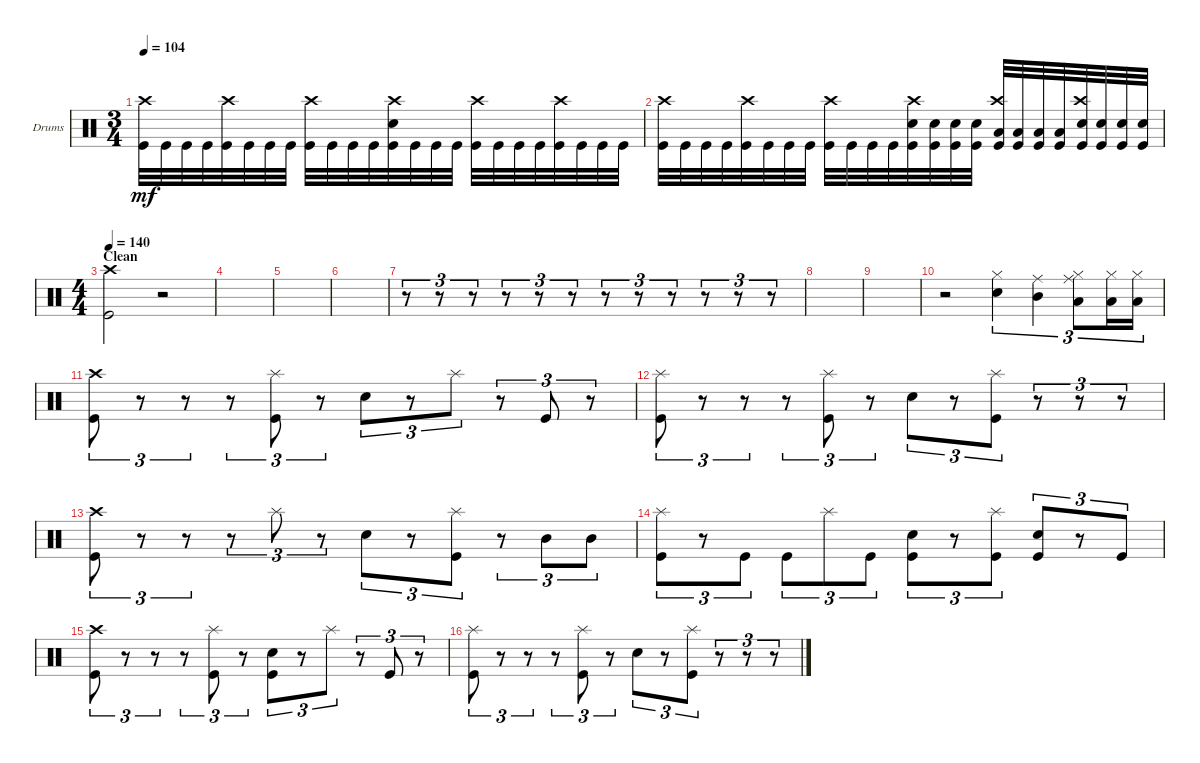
\bracketExtendMode groupsimilarinstruments
\firstSystemTrackNameOrientation horizontal
\otherSystemsTrackNameOrientation horizontal
\track ("Drumkit" "Drums") {instrument percussion}
\staff {score}
\articulation defaults
\ts (3 4)
\tempo 104
\clef neutral
\ks c
("Kick (hit)" "Crash high (hit)").32{dy mf} "Kick (hit)".32 "Kick (hit)".32 "Kick (hit)".32 ("Kick (hit)" "Crash high (hit)").32 "Kick (hit)".32 "Kick (hit)".32 "Kick (hit)".32 ("Kick (hit)" "Crash high (hit)").32 "Kick (hit)".32 "Kick (hit)".32 "Kick (hit)".32 ("Kick (hit)" "Crash high (hit)" "Snare (hit) 2").32 "Kick (hit)".32 "Kick (hit)".32 "Kick (hit)".32 ("Kick (hit)" "Crash high (hit)").32 "Kick (hit)".32 "Kick (hit)".32 "Kick (hit)".32 ("Kick (hit)" "Crash high (hit)").32 "Kick (hit)".32 "Kick (hit)".32 "Kick (hit)".32 |
("Kick (hit)" "Crash high (hit)").32 "Kick (hit)".32 "Kick (hit)".32 "Kick (hit)".32 ("Kick (hit)" "Crash high (hit)").32 "Kick (hit)".32 "Kick (hit)".32 "Kick (hit)".32 ("Kick (hit)" "Crash high (hit)").32 "Kick (hit)".32 "Kick (hit)".32 "Kick (hit)".32 ("Kick (hit)" "Crash high (hit)" "Snare (hit) 2").32 ("Kick (hit)" "Snare (hit) 2").32 ("Kick (hit)" "Snare (hit) 2").32 ("Kick (hit)" "Snare (hit) 2").32 ("Kick (hit)" "Crash high (hit)" "Low Tom (hit)").32 ("Kick (hit)" "Low Tom (hit)").32 ("Kick (hit)" "Low Tom (hit)").32 ("Kick (hit)" "Low Tom (hit)").32 ("Kick (hit)" "Crash high (hit)" "Snare (hit) 2").32 ("Kick (hit)" "Snare (hit) 2").32 ("Kick (hit)" "Snare (hit) 2").32 ("Kick (hit)" "Snare (hit) 2").32 |
\ts (4 4)
\section ("" "Clean")
\tempo 140
("Crash high (hit)" "Kick (hit)").2 r.2 |
|
|
|
r.8{tu (3 2)} r.8{tu (3 2)} r.8{tu (3 2)} r.8{tu (3 2)} r.8{tu (3 2)} r.8{tu (3 2)} r.8{tu (3 2)} r.8{tu (3 2)} r.8{tu (3 2)} r.8{tu (3 2)} r.8{tu (3 2)} r.8{tu (3 2)} |
|
|
r.2 ("Snare (hit) 2" "Hi-Hat (closed)").4{tu (3 2)} ("Mid Tom (hit)" "Ride (middle)").4{tu (3 2)} ("Low Tom (hit)" "Hi-Hat (closed)" "Ride (middle)").8{tu (3 2)} ("Low Tom (hit)" "Hi-Hat (closed)").16{tu (3 2)} ("Low Tom (hit)" "Hi-Hat (closed)").16{tu (3 2)} |
("Kick (hit)" "Crash high (hit)").8{tu (3 2)} r.8{tu (3 2)} r.8{tu (3 2)} r.8{tu (3 2)} ("Kick (hit)" "Splash (hit)").8{tu (3 2)} r.8{tu (3 2)} "Snare (hit) 2".8{tu (3 2)} r.8{tu (3 2)} "Splash (hit)".8{tu (3 2)} r.8{tu (3 2)} "Kick (hit)".8{tu (3 2)} r.8{tu (3 2)} |
("Kick (hit)" "Splash (hit)").8{tu (3 2)} r.8{tu (3 2)} r.8{tu (3 2)} r.8{tu (3 2)} ("Kick (hit)" "Splash (hit)").8{tu (3 2)} r.8{tu (3 2)} "Snare (hit) 2".8{tu (3 2)} r.8{tu (3 2)} ("Kick (hit)" "Splash (hit)").8{tu (3 2)} r.8{tu (3 2)} r.8{tu (3 2)} r.8{tu (3 2)} |
("Kick (hit)" "Crash high (hit)").8{tu (3 2)} r.8{tu (3 2)} r.8{tu (3 2)} r.8{tu (3 2)} "Splash (hit)".8{tu (3 2)} r.8{tu (3 2)} "Snare (hit) 2".8{tu (3 2)} r.8{tu (3 2)} ("Kick (hit)" "Splash (hit)").8{tu (3 2)} r.8{tu (3 2)} "Mid Tom (hit)".8{tu (3 2)} "Mid Tom (hit)".8{tu (3 2)} |
("Kick (hit)" "Splash (hit)").8{tu (3 2)} r.8{tu (3 2)} "Kick (hit)".8{tu (3 2)} "Kick (hit)".8{tu (3 2)} "Splash (hit)".8{tu (3 2)} "Kick (hit)".8{tu (3 2)} ("Snare (hit) 2" "Kick (hit)").8{tu (3 2)} r.8{tu (3 2)} ("Kick (hit)" "Splash (hit)").8{tu (3 2)} ("Snare (hit) 2" "Kick (hit)").8{tu (3 2)} r.8{tu (3 2)} "Kick (hit)".8{tu (3 2)} |
("Kick (hit)" "Crash high (hit)").8{tu (3 2)} r.8{tu (3 2)} r.8{tu (3 2)} r.8{tu (3 2)} ("Kick (hit)" "Splash (hit)").8{tu (3 2)} r.8{tu (3 2)} ("Snare (hit) 2" "Kick (hit)").8{tu (3 2)} r.8{tu (3 2)} "Splash (hit)".8{tu (3 2)} r.8{tu (3 2)} "Kick (hit)".8{tu (3 2)} r.8{tu (3 2)} |
("Kick (hit)" "Splash (hit)").8{tu (3 2)} r.8{tu (3 2)} r.8{tu (3 2)} r.8{tu (3 2)} ("Kick (hit)" "Splash (hit)").8{tu (3 2)} r.8{tu (3 2)} "Snare (hit) 2".8{tu (3 2)} r.8{tu (3 2)} ("Kick (hit)" "Splash (hit)").8{tu (3 2)} r.8{tu (3 2)} r.8{tu (3 2)} r.8{tu (3 2)}
